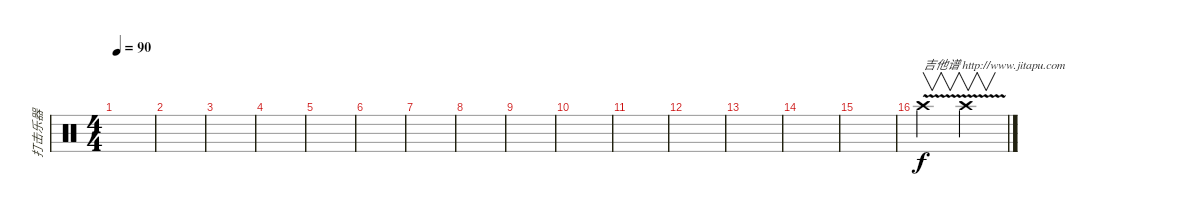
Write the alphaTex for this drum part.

\track ("打击乐器" "打击乐器") {instrument percussion}
\staff {score}
\articulation defaults
\ts (4 4)
\tempo 90
\clef neutral
\ks c
|
|
|
|
|
|
|
|
|
|
|
|
|
|
|
"Crash high (hit)"{v}.2{v txt "吉他谱 http://www.jitapu.com"} "Crash high (hit)"{v}.2{v}
